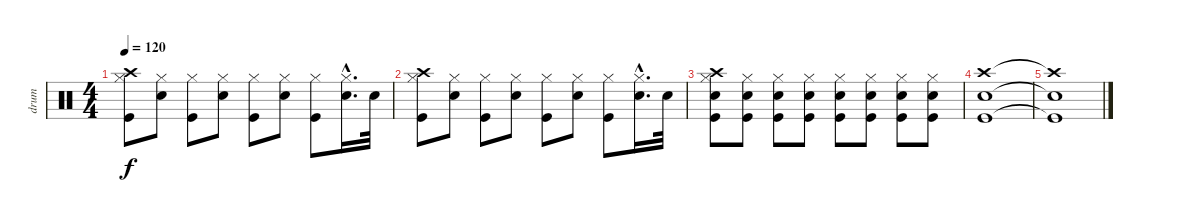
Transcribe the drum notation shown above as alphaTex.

\track ("drum " "drum ") {instrument percussion}
\staff {score}
\articulation defaults
\ts (4 4)
\tempo 120
\clef neutral
\ks c
("Crash high (hit)" "Hi-Hat (closed)" "Kick (hit)").8{dy f} ("Hi-Hat (closed)" "Snare (hit) 2").8 ("Hi-Hat (closed)" "Kick (hit)").8 ("Hi-Hat (closed)" "Snare (hit) 2").8 ("Hi-Hat (closed)" "Kick (hit)").8 ("Hi-Hat (closed)" "Snare (hit) 2").8 ("Hi-Hat (closed)" "Kick (hit)").8 ("Hi-Hat (closed)"{hac} "Snare (hit) 2"{hac}).16{d} "Snare (hit) 2".32 |
("Crash high (hit)" "Hi-Hat (closed)" "Kick (hit)").8 ("Hi-Hat (closed)" "Snare (hit) 2").8 ("Hi-Hat (closed)" "Kick (hit)").8 ("Hi-Hat (closed)" "Snare (hit) 2").8 ("Hi-Hat (closed)" "Kick (hit)").8 ("Hi-Hat (closed)" "Snare (hit) 2").8 ("Hi-Hat (closed)" "Kick (hit)").8 ("Hi-Hat (closed)"{hac} "Snare (hit) 2"{hac}).16{d} "Snare (hit) 2".32 |
("Crash high (hit)" "Hi-Hat (closed)" "Snare (hit) 2" "Kick (hit)").8 ("Hi-Hat (closed)" "Snare (hit) 2" "Kick (hit)").8 ("Hi-Hat (closed)" "Snare (hit) 2" "Kick (hit)").8 ("Hi-Hat (closed)" "Snare (hit) 2" "Kick (hit)").8 ("Hi-Hat (closed)" "Snare (hit) 2" "Kick (hit)").8 ("Hi-Hat (closed)" "Snare (hit) 2" "Kick (hit)").8 ("Hi-Hat (closed)" "Snare (hit) 2" "Kick (hit)").8 ("Hi-Hat (closed)" "Snare (hit) 2" "Kick (hit)").8 |
("Crash high (hit)" "Snare (hit) 2" "Kick (hit)").1 |
("Crash high (hit)"{t} "Snare (hit) 2"{t} "Kick (hit)"{t}).1
